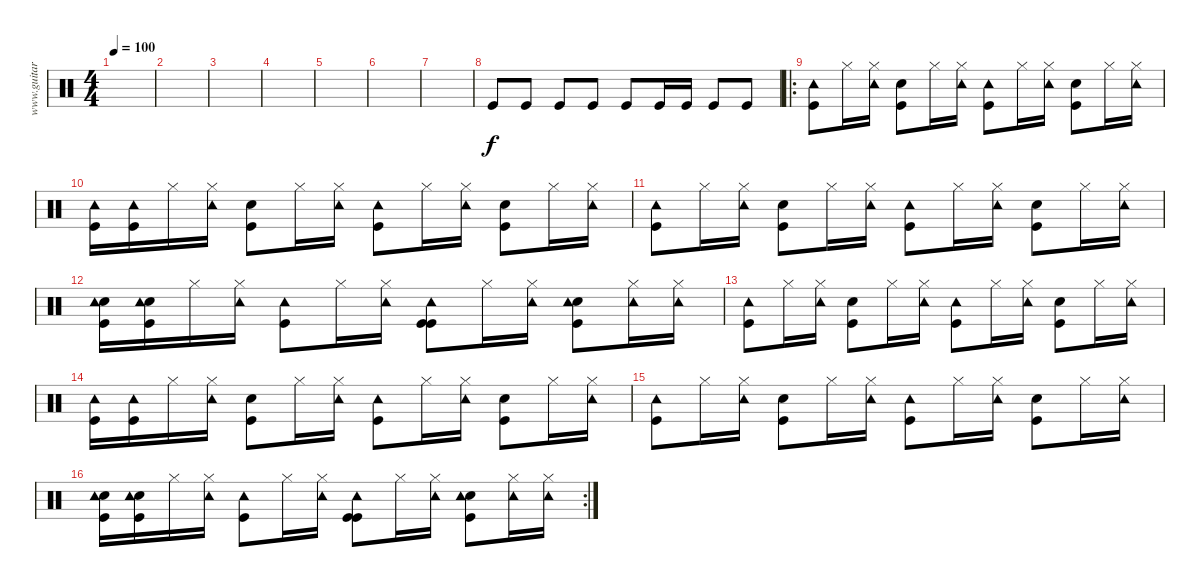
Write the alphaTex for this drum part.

\track ("www.guitarpro1.narod.ru" "www.guitar") {instrument percussion}
\staff {score}
\articulation defaults
\ts (4 4)
\tempo 100
\clef neutral
\ks c
|
|
|
|
|
|
|
"Kick (hit)".8 "Kick (hit)".8 "Kick (hit)".8 "Kick (hit)".8 "Kick (hit)".8 "Kick (hit)".16 "Kick (hit)".16 "Kick (hit)".8 "Kick (hit)".8 |
\ro
("Kick (hit)" "Tambourine (hit)").8 "Hi-Hat (closed)".16 ("Tambourine (hit)" "Hi-Hat (closed)").16 ("Kick (hit)" "Hand Clap (hit)").8 "Hi-Hat (closed)".16 ("Tambourine (hit)" "Hi-Hat (closed)").16 ("Kick (hit)" "Tambourine (hit)").8 "Hi-Hat (closed)".16 ("Tambourine (hit)" "Hi-Hat (closed)").16 ("Kick (hit)" "Hand Clap (hit)").8 "Hi-Hat (closed)".16 ("Tambourine (hit)" "Hi-Hat (closed)").16 |
("Kick (hit)" "Tambourine (hit)").16 ("Kick (hit)" "Tambourine (hit)").16 "Hi-Hat (closed)".16 ("Tambourine (hit)" "Hi-Hat (closed)").16 ("Kick (hit)" "Hand Clap (hit)").8 "Hi-Hat (closed)".16 ("Tambourine (hit)" "Hi-Hat (closed)").16 ("Kick (hit)" "Tambourine (hit)").8 "Hi-Hat (closed)".16 ("Tambourine (hit)" "Hi-Hat (closed)").16 ("Kick (hit)" "Hand Clap (hit)").8 "Hi-Hat (closed)".16 ("Tambourine (hit)" "Hi-Hat (closed)").16 |
("Kick (hit)" "Tambourine (hit)").8 "Hi-Hat (closed)".16 ("Tambourine (hit)" "Hi-Hat (closed)").16 ("Kick (hit)" "Hand Clap (hit)").8 "Hi-Hat (closed)".16 ("Tambourine (hit)" "Hi-Hat (closed)").16 ("Kick (hit)" "Tambourine (hit)").8 "Hi-Hat (closed)".16 ("Tambourine (hit)" "Hi-Hat (closed)").16 ("Kick (hit)" "Hand Clap (hit)").8 "Hi-Hat (closed)".16 ("Tambourine (hit)" "Hi-Hat (closed)").16 |
("Kick (hit)" "Hand Clap (hit)" "Tambourine (hit)").16 ("Kick (hit)" "Hand Clap (hit)" "Tambourine (hit)").16 "Hi-Hat (closed)".16 ("Tambourine (hit)" "Hi-Hat (closed)").16 ("Kick (hit)" "Tambourine (hit)").8 "Hi-Hat (closed)".16 ("Tambourine (hit)" "Hi-Hat (closed)").16 ("Kick (hit)" "Kick (hit)" "Tambourine (hit)").8 "Hi-Hat (closed)".16 ("Tambourine (hit)" "Hi-Hat (closed)").16 ("Kick (hit)" "Hand Clap (hit)" "Tambourine (hit)").8 ("Hi-Hat (closed)" "Tambourine (hit)").16 ("Tambourine (hit)" "Hi-Hat (closed)").16 |
("Kick (hit)" "Tambourine (hit)").8 "Hi-Hat (closed)".16 ("Tambourine (hit)" "Hi-Hat (closed)").16 ("Kick (hit)" "Hand Clap (hit)").8 "Hi-Hat (closed)".16 ("Tambourine (hit)" "Hi-Hat (closed)").16 ("Kick (hit)" "Tambourine (hit)").8 "Hi-Hat (closed)".16 ("Tambourine (hit)" "Hi-Hat (closed)").16 ("Kick (hit)" "Hand Clap (hit)").8 "Hi-Hat (closed)".16 ("Tambourine (hit)" "Hi-Hat (closed)").16 |
("Kick (hit)" "Tambourine (hit)").16 ("Kick (hit)" "Tambourine (hit)").16 "Hi-Hat (closed)".16 ("Tambourine (hit)" "Hi-Hat (closed)").16 ("Kick (hit)" "Hand Clap (hit)").8 "Hi-Hat (closed)".16 ("Tambourine (hit)" "Hi-Hat (closed)").16 ("Kick (hit)" "Tambourine (hit)").8 "Hi-Hat (closed)".16 ("Tambourine (hit)" "Hi-Hat (closed)").16 ("Kick (hit)" "Hand Clap (hit)").8 "Hi-Hat (closed)".16 ("Tambourine (hit)" "Hi-Hat (closed)").16 |
("Kick (hit)" "Tambourine (hit)").8 "Hi-Hat (closed)".16 ("Tambourine (hit)" "Hi-Hat (closed)").16 ("Kick (hit)" "Hand Clap (hit)").8 "Hi-Hat (closed)".16 ("Tambourine (hit)" "Hi-Hat (closed)").16 ("Kick (hit)" "Tambourine (hit)").8 "Hi-Hat (closed)".16 ("Tambourine (hit)" "Hi-Hat (closed)").16 ("Kick (hit)" "Hand Clap (hit)").8 "Hi-Hat (closed)".16 ("Tambourine (hit)" "Hi-Hat (closed)").16 |
\rc 2
("Kick (hit)" "Hand Clap (hit)" "Tambourine (hit)").16 ("Kick (hit)" "Hand Clap (hit)" "Tambourine (hit)").16 "Hi-Hat (closed)".16 ("Tambourine (hit)" "Hi-Hat (closed)").16 ("Kick (hit)" "Tambourine (hit)").8 "Hi-Hat (closed)".16 ("Tambourine (hit)" "Hi-Hat (closed)").16 ("Kick (hit)" "Kick (hit)" "Tambourine (hit)").8 "Hi-Hat (closed)".16 ("Tambourine (hit)" "Hi-Hat (closed)").16 ("Kick (hit)" "Hand Clap (hit)" "Tambourine (hit)").8 ("Hi-Hat (closed)" "Tambourine (hit)").16 ("Tambourine (hit)" "Hi-Hat (closed)").16
